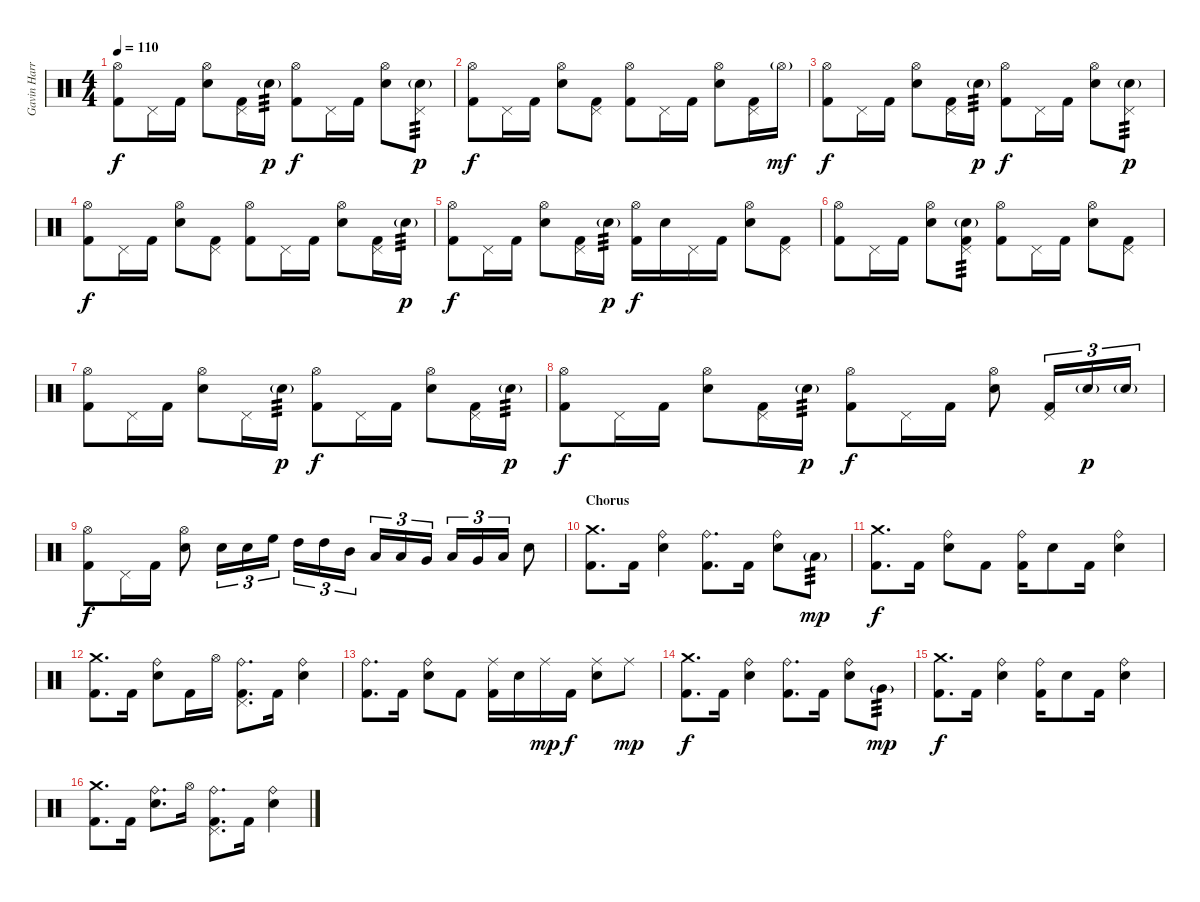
\track ("Gavin Harrison - Drums" "Gavin Harr") {instrument percussion}
\staff {score}
\articulation defaults
\ts (4 4)
\tempo 110
\clef neutral
\ks c
("Hi-Hat (open)" "Kick (hit) 2").8{dy f} "Pedal Hi-Hat (hit)".16 "Kick (hit) 2".16 ("Hi-Hat (open)" "Electric Snare (hit)").8 ("Pedal Hi-Hat (hit)" "Kick (hit) 2").16 "Electric Snare (hit)"{g}.16{tp 3 dy p} ("Hi-Hat (open)" "Kick (hit) 2").8{dy f} "Pedal Hi-Hat (hit)".16 "Kick (hit) 2".16 ("Hi-Hat (open)" "Electric Snare (hit)").8 ("Pedal Hi-Hat (hit)" "Electric Snare (hit)"{g}).8{tp 3 dy p} |
("Hi-Hat (open)" "Kick (hit) 2").8{dy f} "Pedal Hi-Hat (hit)".16 "Kick (hit) 2".16 ("Hi-Hat (open)" "Electric Snare (hit)").8 ("Pedal Hi-Hat (hit)" "Kick (hit) 2").8 ("Hi-Hat (open)" "Kick (hit) 2").8 "Pedal Hi-Hat (hit)".16 "Kick (hit) 2".16 ("Hi-Hat (open)" "Electric Snare (hit)").8 ("Pedal Hi-Hat (hit)" "Kick (hit) 2").16 "Hi-Hat (open)"{g}.16{dy mf} |
("Hi-Hat (open)" "Kick (hit) 2").8{dy f} "Pedal Hi-Hat (hit)".16 "Kick (hit) 2".16 ("Hi-Hat (open)" "Electric Snare (hit)").8 ("Pedal Hi-Hat (hit)" "Kick (hit) 2").16 "Electric Snare (hit)"{g}.16{tp 3 dy p} ("Hi-Hat (open)" "Kick (hit) 2").8{dy f} "Pedal Hi-Hat (hit)".16 "Kick (hit) 2".16 ("Hi-Hat (open)" "Electric Snare (hit)").8 ("Pedal Hi-Hat (hit)" "Electric Snare (hit)"{g}).8{tp 3 dy p} |
("Hi-Hat (open)" "Kick (hit) 2").8{dy f} "Pedal Hi-Hat (hit)".16 "Kick (hit) 2".16 ("Hi-Hat (open)" "Electric Snare (hit)").8 ("Pedal Hi-Hat (hit)" "Kick (hit) 2").8 ("Hi-Hat (open)" "Kick (hit) 2").8 "Pedal Hi-Hat (hit)".16 "Kick (hit) 2".16 ("Hi-Hat (open)" "Electric Snare (hit)").8 ("Pedal Hi-Hat (hit)" "Kick (hit) 2").16 "Electric Snare (hit)"{g}.16{tp 3 dy p} |
("Hi-Hat (open)" "Kick (hit) 2").8{dy f} "Pedal Hi-Hat (hit)".16 "Kick (hit) 2".16 ("Hi-Hat (open)" "Electric Snare (hit)").8 ("Pedal Hi-Hat (hit)" "Kick (hit) 2").16 "Electric Snare (hit)"{g}.16{tp 3 dy p} ("Hi-Hat (open)" "Kick (hit) 2").16{dy f} "Electric Snare (hit)".16 "Pedal Hi-Hat (hit)".16 "Kick (hit) 2".16 ("Hi-Hat (open)" "Electric Snare (hit)").8 ("Pedal Hi-Hat (hit)" "Kick (hit) 2").8 |
("Hi-Hat (open)" "Kick (hit) 2").8 "Pedal Hi-Hat (hit)".16 "Kick (hit) 2".16 ("Hi-Hat (open)" "Electric Snare (hit)").8 ("Pedal Hi-Hat (hit)" "Electric Snare (hit)"{g} "Kick (hit) 2").8{tp 3} ("Hi-Hat (open)" "Kick (hit) 2").8 "Pedal Hi-Hat (hit)".16 "Kick (hit) 2".16 ("Hi-Hat (open)" "Electric Snare (hit)").8 ("Pedal Hi-Hat (hit)" "Kick (hit) 2").8 |
("Hi-Hat (open)" "Kick (hit) 2").8 "Pedal Hi-Hat (hit)".16 "Kick (hit) 2".16 ("Hi-Hat (open)" "Electric Snare (hit)").8 "Pedal Hi-Hat (hit)".16 "Electric Snare (hit)"{g}.16{tp 3 dy p} ("Hi-Hat (open)" "Kick (hit) 2").8{dy f} "Pedal Hi-Hat (hit)".16 "Kick (hit) 2".16 ("Hi-Hat (open)" "Electric Snare (hit)").8 ("Pedal Hi-Hat (hit)" "Kick (hit) 2").16 "Electric Snare (hit)"{g}.16{tp 3 dy p} |
("Hi-Hat (open)" "Kick (hit) 2").8{dy f} "Pedal Hi-Hat (hit)".16 "Kick (hit) 2".16 ("Hi-Hat (open)" "Electric Snare (hit)").8 ("Pedal Hi-Hat (hit)" "Kick (hit) 2").16 "Electric Snare (hit)"{g}.16{tp 3 dy p} ("Hi-Hat (open)" "Kick (hit) 2").8{dy f} "Pedal Hi-Hat (hit)".16 "Kick (hit) 2".16 ("Hi-Hat (open)" "Electric Snare (hit)").8 ("Pedal Hi-Hat (hit)" "Kick (hit) 2").16{tu (3 2)} "Electric Snare (hit)"{g}.16{tu (3 2) dy p} "Electric Snare (hit)"{g}.16{tu (3 2)} |
("Hi-Hat (open)" "Kick (hit) 2").8{dy f} "Pedal Hi-Hat (hit)".16 "Kick (hit) 2".16 ("Hi-Hat (open)" "Electric Snare (hit)").8 "Electric Snare (hit)".16{tu (3 2)} "Electric Snare (hit)".16{tu (3 2)} "High Floor Tom (hit)".16{tu (3 2)} "High Tom (hit)".16{tu (3 2)} "High Tom (hit)".16{tu (3 2)} "Mid Tom (hit)".16{tu (3 2)} "Low Tom (hit)".16{tu (3 2)} "Low Tom (hit)".16{tu (3 2)} "Very Low Tom (hit)".16{tu (3 2)} "Low Floor Tom (hit)".16{tu (3 2)} "Very Low Tom (hit)".16{tu (3 2)} "Low Tom (hit)".16{tu (3 2)} "Electric Snare (hit)".8 |
\section ("" "Chorus")
("Crash medium (hit)" "Kick (hit) 2").8{d} "Kick (hit) 2".16 ("Ride (bell)" "Electric Snare (hit)").4 ("Ride (bell)" "Kick (hit) 2").8{d} "Kick (hit) 2".16 ("Ride (bell)" "Electric Snare (hit)").8 "Low Floor Tom (hit)"{g}.8{tp 3 dy mp} |
("Crash medium (hit)" "Kick (hit) 2").8{d dy f} "Kick (hit) 2".16 ("Ride (bell)" "Electric Snare (hit)").8 "Kick (hit) 2".8 ("Ride (bell)" "Kick (hit) 2").16 "Electric Snare (hit)".8 "Kick (hit) 2".16 ("Ride (bell)" "Electric Snare (hit)").4 |
("Crash medium (hit)" "Kick (hit) 2").8{d} "Kick (hit) 2".16 ("Ride (bell)" "Electric Snare (hit)").8 "Kick (hit) 2".16 "Hi-Hat (open)".16 ("Ride (bell)" "Pedal Hi-Hat (hit)" "Kick (hit) 2").8{d} "Kick (hit) 2".16 ("Ride (bell)" "Electric Snare (hit)").4 |
("Ride (bell)" "Kick (hit) 2").8{d} "Kick (hit) 2".16 ("Ride (bell)" "Electric Snare (hit)").8 "Kick (hit) 2".8 ("Ride (middle)" "Kick (hit) 2").16 "Electric Snare (hit)".16 "Ride (middle)".16{dy mp} "Kick (hit) 2".16{dy f} ("Ride (middle)" "Electric Snare (hit)").8 "Ride (middle)".8{dy mp} |
("Crash medium (hit)" "Kick (hit) 2").8{d dy f} "Kick (hit) 2".16 ("Ride (bell)" "Electric Snare (hit)").4 ("Ride (bell)" "Kick (hit) 2").8{d} "Kick (hit) 2".16 ("Ride (bell)" "Electric Snare (hit)").8 "Very Low Tom (hit)"{g}.8{tp 3 dy mp} |
("Crash medium (hit)" "Kick (hit) 2").8{d dy f} "Kick (hit) 2".16 ("Ride (bell)" "Electric Snare (hit)").4 ("Ride (bell)" "Kick (hit) 2").16 "Electric Snare (hit)".8 "Kick (hit) 2".16 ("Ride (bell)" "Electric Snare (hit)").4 |
("Crash medium (hit)" "Kick (hit) 2").8{d} "Kick (hit) 2".16 ("Ride (bell)" "Electric Snare (hit)").8{d} "Hi-Hat (open)".16 ("Ride (bell)" "Pedal Hi-Hat (hit)" "Kick (hit) 2").8{d} "Kick (hit) 2".16 ("Ride (bell)" "Electric Snare (hit)").4
